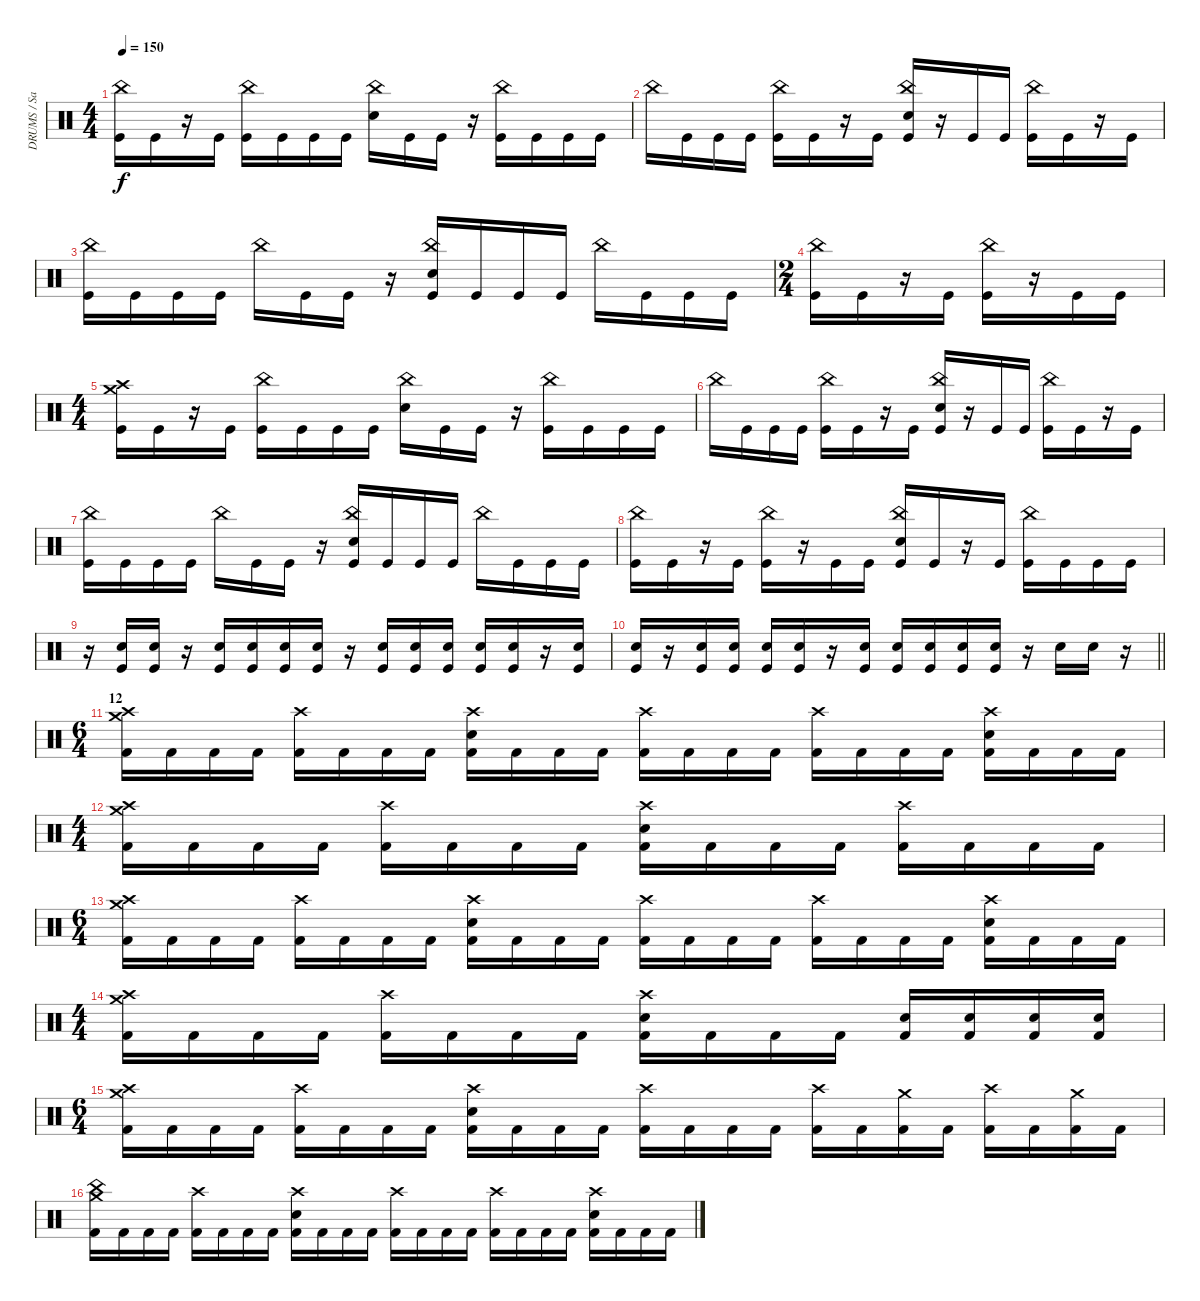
\track ("DRUMS / Sasha" "DRUMS / Sa") {instrument percussion}
\staff {score}
\articulation defaults
\ts (4 4)
\tempo 150
\clef neutral
\ks c
("Kick (hit)" "China (hit)").16{dy f} "Kick (hit)".16 r.16 "Kick (hit)".16 ("Kick (hit)" "China (hit)").16 "Kick (hit)".16 "Kick (hit)".16 "Kick (hit)".16 ("China (hit)" "Snare (hit) 2").16 "Kick (hit)".16 "Kick (hit)".16 r.16 ("Kick (hit)" "China (hit)").16 "Kick (hit)".16 "Kick (hit)".16 "Kick (hit)".16 |
"China (hit)".16 "Kick (hit)".16 "Kick (hit)".16 "Kick (hit)".16 ("China (hit)" "Kick (hit)").16 "Kick (hit)".16 r.16 "Kick (hit)".16 ("China (hit)" "Snare (hit) 2" "Kick (hit)").16 r.16 "Kick (hit)".16 "Kick (hit)".16 ("Kick (hit)" "China (hit)").16 "Kick (hit)".16 r.16 "Kick (hit)".16 |
("Kick (hit)" "China (hit)").16 "Kick (hit)".16 "Kick (hit)".16 "Kick (hit)".16 "China (hit)".16 "Kick (hit)".16 "Kick (hit)".16 r.16 ("China (hit)" "Snare (hit) 2" "Kick (hit)").16 "Kick (hit)".16 "Kick (hit)".16 "Kick (hit)".16 "China (hit)".16 "Kick (hit)".16 "Kick (hit)".16 "Kick (hit)".16 |
\ts (2 4)
("Kick (hit)" "China (hit)").16 "Kick (hit)".16 r.16 "Kick (hit)".16 ("Kick (hit)" "China (hit)").16 r.16 "Kick (hit)".16 "Kick (hit)".16 |
\ts (4 4)
("Kick (hit)" "Crash high (hit)" "Crash medium (hit)").16 "Kick (hit)".16 r.16 "Kick (hit)".16 ("Kick (hit)" "China (hit)").16 "Kick (hit)".16 "Kick (hit)".16 "Kick (hit)".16 ("China (hit)" "Snare (hit) 2").16 "Kick (hit)".16 "Kick (hit)".16 r.16 ("Kick (hit)" "China (hit)").16 "Kick (hit)".16 "Kick (hit)".16 "Kick (hit)".16 |
"China (hit)".16 "Kick (hit)".16 "Kick (hit)".16 "Kick (hit)".16 ("Kick (hit)" "China (hit)").16 "Kick (hit)".16 r.16 "Kick (hit)".16 ("Kick (hit)" "China (hit)" "Snare (hit) 2").16 r.16 "Kick (hit)".16 "Kick (hit)".16 ("Kick (hit)" "China (hit)").16 "Kick (hit)".16 r.16 "Kick (hit)".16 |
("Kick (hit)" "China (hit)").16 "Kick (hit)".16 "Kick (hit)".16 "Kick (hit)".16 "China (hit)".16 "Kick (hit)".16 "Kick (hit)".16 r.16 ("Kick (hit)" "China (hit)" "Snare (hit) 2").16 "Kick (hit)".16 "Kick (hit)".16 "Kick (hit)".16 "China (hit)".16 "Kick (hit)".16 "Kick (hit)".16 "Kick (hit)".16 |
("Kick (hit)" "China (hit)").16 "Kick (hit)".16 r.16 "Kick (hit)".16 ("Kick (hit)" "China (hit)").16 r.16 "Kick (hit)".16 "Kick (hit)".16 ("Kick (hit)" "China (hit)" "Snare (hit) 2").16 "Kick (hit)".16 r.16 "Kick (hit)".16 ("Kick (hit)" "China (hit)").16 "Kick (hit)".16 "Kick (hit)".16 "Kick (hit)".16 |
r.16 ("Kick (hit)" "Snare (hit) 2").16 ("Kick (hit)" "Snare (hit) 2").16 r.16 ("Kick (hit)" "Snare (hit) 2").16 ("Kick (hit)" "Snare (hit) 2").16 ("Kick (hit)" "Snare (hit) 2").16 ("Kick (hit)" "Snare (hit) 2").16 r.16 ("Kick (hit)" "Snare (hit) 2").16 ("Kick (hit)" "Snare (hit) 2").16 ("Kick (hit)" "Snare (hit) 2").16 ("Kick (hit)" "Snare (hit) 2").16 ("Kick (hit)" "Snare (hit) 2").16 r.16 ("Kick (hit)" "Snare (hit) 2").16 |
\barLineRight lightlight
("Kick (hit)" "Snare (hit) 2").16 r.16 ("Kick (hit)" "Snare (hit) 2").16 ("Kick (hit)" "Snare (hit) 2").16 ("Kick (hit)" "Snare (hit) 2").16 ("Kick (hit)" "Snare (hit) 2").16 r.16 ("Kick (hit)" "Snare (hit) 2").16 ("Kick (hit)" "Snare (hit) 2").16 ("Kick (hit)" "Snare (hit) 2").16 ("Kick (hit)" "Snare (hit) 2").16 ("Kick (hit)" "Snare (hit) 2").16 r.16 "Snare (hit) 2".16 "Snare (hit) 2".16 r.16 |
\ts (6 4)
\section ("" "12")
("Crash high (hit)" "Crash medium (hit)" "Kick (hit) 2").16 "Kick (hit) 2".16 "Kick (hit) 2".16 "Kick (hit) 2".16 ("Crash high (hit)" "Kick (hit) 2").16 "Kick (hit) 2".16 "Kick (hit) 2".16 "Kick (hit) 2".16 ("Crash high (hit)" "Electric Snare (hit)" "Kick (hit) 2").16 "Kick (hit) 2".16 "Kick (hit) 2".16 "Kick (hit) 2".16 ("Crash high (hit)" "Kick (hit) 2").16 "Kick (hit) 2".16 "Kick (hit) 2".16 "Kick (hit) 2".16 ("Crash high (hit)" "Kick (hit) 2").16 "Kick (hit) 2".16 "Kick (hit) 2".16 "Kick (hit) 2".16 ("Crash high (hit)" "Electric Snare (hit)" "Kick (hit) 2").16 "Kick (hit) 2".16 "Kick (hit) 2".16 "Kick (hit) 2".16 |
\ts (4 4)
("Crash high (hit)" "Crash medium (hit)" "Kick (hit) 2").16 "Kick (hit) 2".16 "Kick (hit) 2".16 "Kick (hit) 2".16 ("Crash high (hit)" "Kick (hit) 2").16 "Kick (hit) 2".16 "Kick (hit) 2".16 "Kick (hit) 2".16 ("Crash high (hit)" "Electric Snare (hit)" "Kick (hit) 2").16 "Kick (hit) 2".16 "Kick (hit) 2".16 "Kick (hit) 2".16 ("Crash high (hit)" "Kick (hit) 2").16 "Kick (hit) 2".16 "Kick (hit) 2".16 "Kick (hit) 2".16 |
\ts (6 4)
("Crash high (hit)" "Crash medium (hit)" "Kick (hit) 2").16 "Kick (hit) 2".16 "Kick (hit) 2".16 "Kick (hit) 2".16 ("Crash high (hit)" "Kick (hit) 2").16 "Kick (hit) 2".16 "Kick (hit) 2".16 "Kick (hit) 2".16 ("Crash high (hit)" "Electric Snare (hit)" "Kick (hit) 2").16 "Kick (hit) 2".16 "Kick (hit) 2".16 "Kick (hit) 2".16 ("Crash high (hit)" "Kick (hit) 2").16 "Kick (hit) 2".16 "Kick (hit) 2".16 "Kick (hit) 2".16 ("Crash high (hit)" "Kick (hit) 2").16 "Kick (hit) 2".16 "Kick (hit) 2".16 "Kick (hit) 2".16 ("Crash high (hit)" "Electric Snare (hit)" "Kick (hit) 2").16 "Kick (hit) 2".16 "Kick (hit) 2".16 "Kick (hit) 2".16 |
\ts (4 4)
("Crash high (hit)" "Crash medium (hit)" "Kick (hit) 2").16 "Kick (hit) 2".16 "Kick (hit) 2".16 "Kick (hit) 2".16 ("Crash high (hit)" "Kick (hit) 2").16 "Kick (hit) 2".16 "Kick (hit) 2".16 "Kick (hit) 2".16 ("Crash high (hit)" "Electric Snare (hit)" "Kick (hit) 2").16 "Kick (hit) 2".16 "Kick (hit) 2".16 "Kick (hit) 2".16 ("Electric Snare (hit)" "Kick (hit) 2").16 ("Electric Snare (hit)" "Kick (hit) 2").16 ("Electric Snare (hit)" "Kick (hit) 2").16 ("Electric Snare (hit)" "Kick (hit) 2").16 |
\ts (6 4)
("Crash high (hit)" "Crash medium (hit)" "Kick (hit) 2").16 "Kick (hit) 2".16 "Kick (hit) 2".16 "Kick (hit) 2".16 ("Crash high (hit)" "Kick (hit) 2").16 "Kick (hit) 2".16 "Kick (hit) 2".16 "Kick (hit) 2".16 ("Crash high (hit)" "Electric Snare (hit)" "Kick (hit) 2").16 "Kick (hit) 2".16 "Kick (hit) 2".16 "Kick (hit) 2".16 ("Crash high (hit)" "Kick (hit) 2").16 "Kick (hit) 2".16 "Kick (hit) 2".16 "Kick (hit) 2".16 ("Crash high (hit)" "Kick (hit) 2").16 "Kick (hit) 2".16 ("Crash medium (hit)" "Kick (hit) 2").16 "Kick (hit) 2".16 ("Crash high (hit)" "Kick (hit) 2").16 "Kick (hit) 2".16 ("Crash medium (hit)" "Kick (hit) 2").16 "Kick (hit) 2".16 |
("China (hit)" "Crash medium (hit)" "Kick (hit) 2").16 "Kick (hit) 2".16 "Kick (hit) 2".16 "Kick (hit) 2".16 ("Crash high (hit)" "Kick (hit) 2").16 "Kick (hit) 2".16 "Kick (hit) 2".16 "Kick (hit) 2".16 ("Crash high (hit)" "Electric Snare (hit)" "Kick (hit) 2").16 "Kick (hit) 2".16 "Kick (hit) 2".16 "Kick (hit) 2".16 ("Crash high (hit)" "Kick (hit) 2").16 "Kick (hit) 2".16 "Kick (hit) 2".16 "Kick (hit) 2".16 ("Crash high (hit)" "Kick (hit) 2").16 "Kick (hit) 2".16 "Kick (hit) 2".16 "Kick (hit) 2".16 ("Crash high (hit)" "Electric Snare (hit)" "Kick (hit) 2").16 "Kick (hit) 2".16 "Kick (hit) 2".16 "Kick (hit) 2".16
